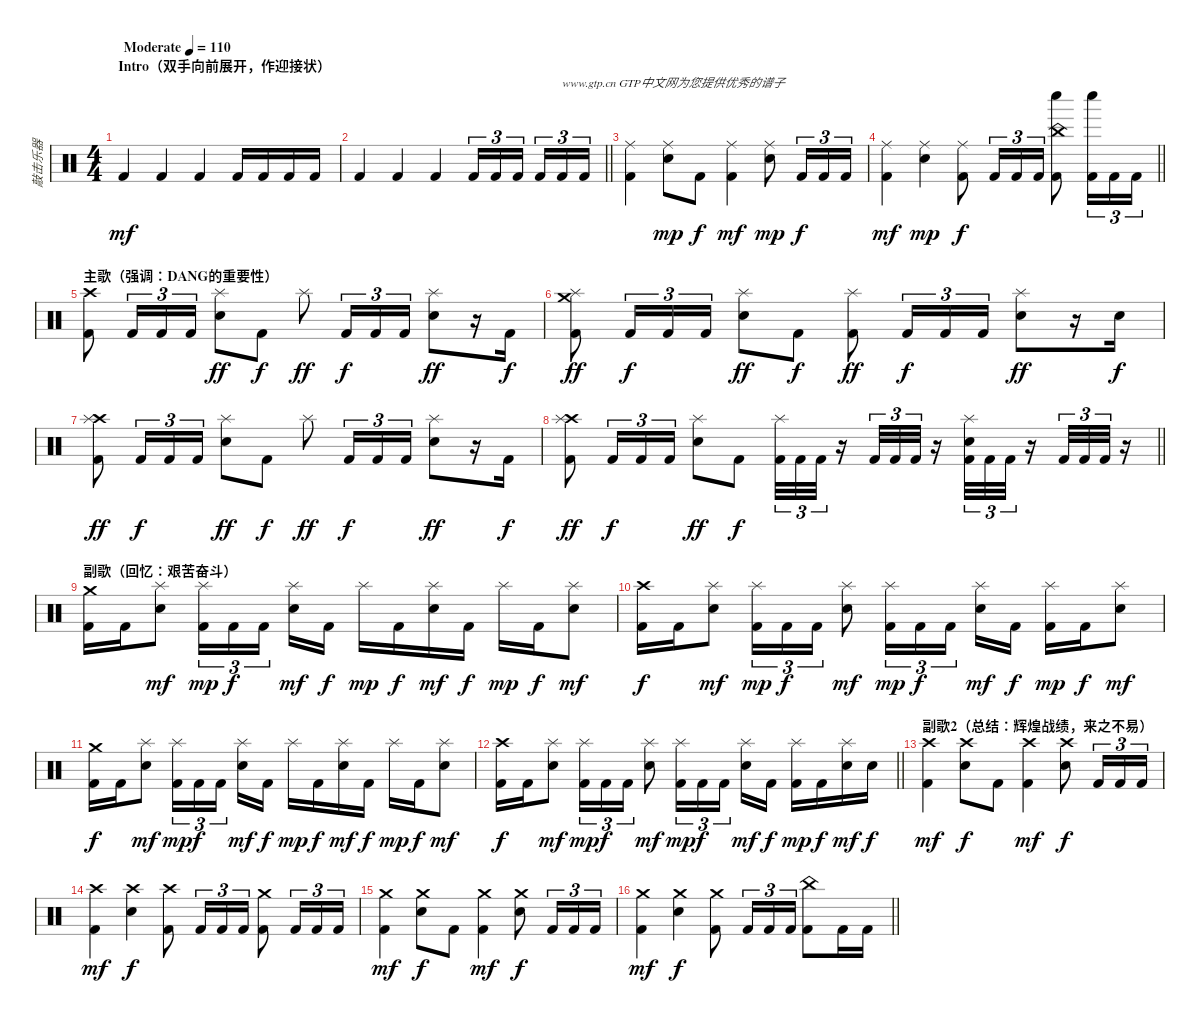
\track ("敲击乐器" "敲击乐器") {instrument percussion}
\staff {score}
\articulation defaults
\ts (4 4)
\section ("" "Intro（双手向前展开，作迎接状）")
\tempo (110 "Moderate")
\clef neutral
\ks c "Kick (hit) 2".4{dy mf} "Kick (hit) 2".4 "Kick (hit) 2".4 "Kick (hit) 2".16 "Kick (hit) 2".16 "Kick (hit) 2".16 "Kick (hit) 2".16
|
\barLineRight lightlight "Kick (hit) 2".4 "Kick (hit) 2".4 "Kick (hit) 2".4 "Kick (hit) 2".16{tu (3 2)} "Kick (hit) 2".16{tu (3 2)} "Kick (hit) 2".16{tu (3 2) beam splitsecondary} "Kick (hit) 2".16{tu (3 2)} "Kick (hit) 2".16{tu (3 2) txt "www.gtp.cn GTP中文网为您提供优秀的谱子"} "Kick (hit) 2".16{tu (3 2)}
|
\section ("" "")
("Ride (middle)" "Kick (hit) 2").4 ("Ride (middle)" "Snare (hit) 2").8{dy mp} "Kick (hit) 2".8{dy f} ("Ride (middle)" "Kick (hit) 2").4{dy mf} ("Ride (middle)" "Snare (hit) 2").8{dy mp} "Kick (hit) 2".16{tu (3 2) dy f} "Kick (hit) 2".16{tu (3 2)} "Kick (hit) 2".16{tu (3 2)} |
\barLineRight lightlight
("Ride (middle)" "Kick (hit) 2").4{dy mf} ("Ride (middle)" "Snare (hit) 2").4{dy mp} ("Ride (middle)" "Kick (hit) 2").8{dy f} "Kick (hit) 2".16{tu (3 2)} "Kick (hit) 2".16{tu (3 2)} "Kick (hit) 2".16{tu (3 2)} ("China (hit)" "Whistle low (hit)" "Kick (hit) 2").8 ("Whistle low (hit)" "Kick (hit) 2").16{tu (3 2)} "Kick (hit) 2".16{tu (3 2)} "Kick (hit) 2".16{tu (3 2)} |
\section ("" "主歌（强调：DANG的重要性）")
("Crash high (hit)" "Kick (hit) 2").8 "Kick (hit) 2".16{tu (3 2)} "Kick (hit) 2".16{tu (3 2)} "Kick (hit) 2".16{tu (3 2)} ("Splash (hit)" "Snare (hit) 2").8{dy ff} "Kick (hit) 2".8{dy f} "Splash (hit)".8{dy ff} "Kick (hit) 2".16{tu (3 2) dy f} "Kick (hit) 2".16{tu (3 2)} "Kick (hit) 2".16{tu (3 2)} ("Splash (hit)" "Snare (hit) 2").8{dy ff} r.16 "Kick (hit) 2".16{dy f} |
("Crash medium (hit)" "Splash (hit)" "Kick (hit) 2").8{dy ff} "Kick (hit) 2".16{tu (3 2) dy f} "Kick (hit) 2".16{tu (3 2)} "Kick (hit) 2".16{tu (3 2)} ("Splash (hit)" "Snare (hit) 2").8{dy ff} "Kick (hit) 2".8{dy f} ("Splash (hit)" "Kick (hit) 2").8{dy ff} "Kick (hit) 2".16{tu (3 2) dy f} "Kick (hit) 2".16{tu (3 2)} "Kick (hit) 2".16{tu (3 2)} ("Splash (hit)" "Snare (hit) 2").8{dy ff} r.16 "Snare (hit) 2".16{dy f} |
("Crash high (hit)" "Splash (hit)" "Kick (hit) 2").8{dy ff} "Kick (hit) 2".16{tu (3 2) dy f} "Kick (hit) 2".16{tu (3 2)} "Kick (hit) 2".16{tu (3 2)} ("Splash (hit)" "Snare (hit) 2").8{dy ff} "Kick (hit) 2".8{dy f} "Splash (hit)".8{dy ff} "Kick (hit) 2".16{tu (3 2) dy f} "Kick (hit) 2".16{tu (3 2)} "Kick (hit) 2".16{tu (3 2)} ("Splash (hit)" "Snare (hit) 2").8{dy ff} r.16 "Kick (hit) 2".16{dy f} |
\barLineRight lightlight
("Crash high (hit)" "Splash (hit)" "Kick (hit) 2").8{dy ff} "Kick (hit) 2".16{tu (3 2) dy f} "Kick (hit) 2".16{tu (3 2)} "Kick (hit) 2".16{tu (3 2)} ("Splash (hit)" "Snare (hit) 2").8{dy ff} "Kick (hit) 2".8{dy f} ("Splash (hit)" "Kick (hit) 2").32{tu (3 2)} "Kick (hit) 2".32{tu (3 2)} "Kick (hit) 2".32{tu (3 2)} r.16 "Kick (hit) 2".32{tu (3 2)} "Kick (hit) 2".32{tu (3 2)} "Kick (hit) 2".32{tu (3 2)} r.16 ("Splash (hit)" "Snare (hit) 2" "Kick (hit) 2").32{tu (3 2)} "Kick (hit) 2".32{tu (3 2)} "Kick (hit) 2".32{tu (3 2)} r.16 "Kick (hit) 2".32{tu (3 2)} "Kick (hit) 2".32{tu (3 2)} "Kick (hit) 2".32{tu (3 2)} r.16 |
\section ("" "副歌（回忆：艰苦奋斗）")
("Crash medium (hit)" "Kick (hit) 2").16 "Kick (hit) 2".16 ("Splash (hit)" "Snare (hit) 2").8{dy mf} ("Splash (hit)" "Kick (hit) 2").16{tu (3 2) dy mp} "Kick (hit) 2".16{tu (3 2) dy f} "Kick (hit) 2".16{tu (3 2) beam splitsecondary} ("Splash (hit)" "Snare (hit) 2").16{dy mf} "Kick (hit) 2".16{dy f} "Splash (hit)".16{dy mp} "Kick (hit) 2".16{dy f} ("Splash (hit)" "Snare (hit) 2").16{dy mf} "Kick (hit) 2".16{dy f} "Splash (hit)".16{dy mp} "Kick (hit) 2".16{dy f} ("Splash (hit)" "Snare (hit) 2").8{dy mf} |
("Crash high (hit)" "Kick (hit) 2").16{dy f} "Kick (hit) 2".16 ("Splash (hit)" "Snare (hit) 2").8{dy mf} ("Splash (hit)" "Kick (hit) 2").16{tu (3 2) dy mp} "Kick (hit) 2".16{tu (3 2) dy f} "Kick (hit) 2".16{tu (3 2)} ("Splash (hit)" "Snare (hit) 2").8{dy mf} ("Splash (hit)" "Kick (hit) 2").16{tu (3 2) dy mp} "Kick (hit) 2".16{tu (3 2) dy f} "Kick (hit) 2".16{tu (3 2) beam splitsecondary} ("Splash (hit)" "Snare (hit) 2").16{dy mf} "Kick (hit) 2".16{dy f} ("Splash (hit)" "Kick (hit) 2").16{dy mp} "Kick (hit) 2".16{dy f} ("Splash (hit)" "Snare (hit) 2").8{dy mf} |
("Crash medium (hit)" "Kick (hit) 2").16{dy f} "Kick (hit) 2".16 ("Splash (hit)" "Snare (hit) 2").8{dy mf} ("Splash (hit)" "Kick (hit) 2").16{tu (3 2) dy mp} "Kick (hit) 2".16{tu (3 2) dy f} "Kick (hit) 2".16{tu (3 2) beam splitsecondary} ("Splash (hit)" "Snare (hit) 2").16{dy mf} "Kick (hit) 2".16{dy f} "Splash (hit)".16{dy mp} "Kick (hit) 2".16{dy f} ("Splash (hit)" "Snare (hit) 2").16{dy mf} "Kick (hit) 2".16{dy f} "Splash (hit)".16{dy mp} "Kick (hit) 2".16{dy f} ("Splash (hit)" "Snare (hit) 2").8{dy mf} |
\barLineRight lightlight
("Crash high (hit)" "Kick (hit) 2").16{dy f} "Kick (hit) 2".16 ("Splash (hit)" "Snare (hit) 2").8{dy mf} ("Splash (hit)" "Kick (hit) 2").16{tu (3 2) dy mp} "Kick (hit) 2".16{tu (3 2) dy f} "Kick (hit) 2".16{tu (3 2)} ("Splash (hit)" "Snare (hit) 2").8{dy mf} ("Splash (hit)" "Kick (hit) 2").16{tu (3 2) dy mp} "Kick (hit) 2".16{tu (3 2) dy f} "Kick (hit) 2".16{tu (3 2) beam splitsecondary} ("Splash (hit)" "Snare (hit) 2").16{dy mf} "Kick (hit) 2".16{dy f} ("Splash (hit)" "Kick (hit) 2").16{dy mp} "Kick (hit) 2".16{dy f} ("Splash (hit)" "Snare (hit) 2").16{dy mf} "Snare (hit) 2".16{dy f} |
\section ("" "副歌2（总结：辉煌战绩，来之不易）")
("Crash high (hit)" "Kick (hit) 2").4{dy mf} ("Crash high (hit)" "Snare (hit) 2").8{dy f} "Kick (hit) 2".8 ("Crash high (hit)" "Kick (hit) 2").4{dy mf} ("Crash high (hit)" "Snare (hit) 2").8{dy f} "Kick (hit) 2".16{tu (3 2)} "Kick (hit) 2".16{tu (3 2)} "Kick (hit) 2".16{tu (3 2)} |
("Crash high (hit)" "Kick (hit) 2").4{dy mf} ("Crash high (hit)" "Snare (hit) 2").4{dy f} ("Crash high (hit)" "Kick (hit) 2").8 "Kick (hit) 2".16{tu (3 2)} "Kick (hit) 2".16{tu (3 2)} "Kick (hit) 2".16{tu (3 2)} ("Crash medium (hit)" "Kick (hit) 2").8 "Kick (hit) 2".16{tu (3 2)} "Kick (hit) 2".16{tu (3 2)} "Kick (hit) 2".16{tu (3 2)} |
("Crash medium (hit)" "Kick (hit) 2").4{dy mf} ("Crash medium (hit)" "Snare (hit) 2").8{dy f} "Kick (hit) 2".8 ("Crash medium (hit)" "Kick (hit) 2").4{dy mf} ("Crash medium (hit)" "Snare (hit) 2").8{dy f} "Kick (hit) 2".16{tu (3 2)} "Kick (hit) 2".16{tu (3 2)} "Kick (hit) 2".16{tu (3 2)} |
\barLineRight lightlight
("Crash medium (hit)" "Kick (hit) 2").4{dy mf} ("Crash medium (hit)" "Snare (hit) 2").4{dy f} ("Crash medium (hit)" "Kick (hit) 2").8 "Kick (hit) 2".16{tu (3 2)} "Kick (hit) 2".16{tu (3 2)} "Kick (hit) 2".16{tu (3 2)} ("China (hit)" "Kick (hit) 2").8 "Kick (hit) 2".16 "Kick (hit) 2".16
